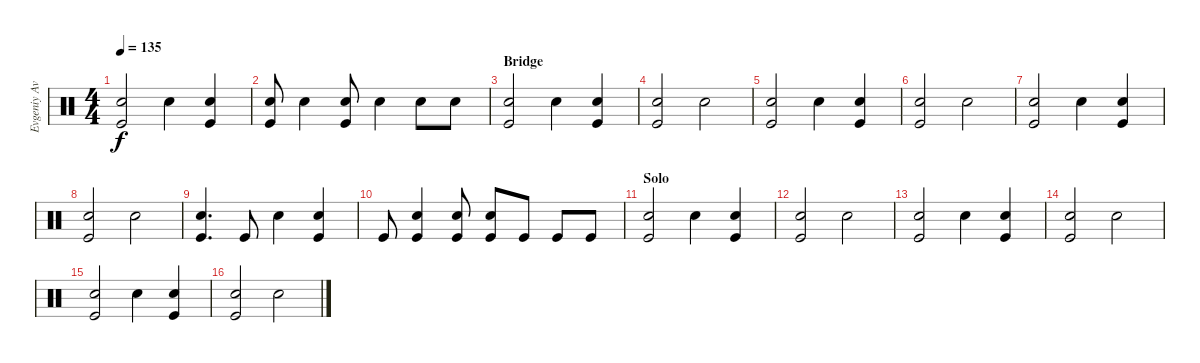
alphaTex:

\track ("Evgeniy Avdotin" "Evgeniy Av") {instrument percussion}
\staff {score}
\articulation defaults
\ts (4 4)
\tempo 135
\clef neutral
\ks c
("Snare (hit) 2" "Kick (hit)").2{dy f} "Snare (hit) 2".4 ("Snare (hit) 2" "Kick (hit)").4 |
("Snare (hit) 2" "Kick (hit)").8 "Snare (hit) 2".4 ("Snare (hit) 2" "Kick (hit)").8 "Snare (hit) 2".4 "Snare (hit) 2".8 "Snare (hit) 2".8 |
\section ("" "Bridge")
("Snare (hit) 2" "Kick (hit)").2 "Snare (hit) 2".4 ("Snare (hit) 2" "Kick (hit)").4 |
("Snare (hit) 2" "Kick (hit)").2 "Snare (hit) 2".2 |
("Snare (hit) 2" "Kick (hit)").2 "Snare (hit) 2".4 ("Snare (hit) 2" "Kick (hit)").4 |
("Snare (hit) 2" "Kick (hit)").2 "Snare (hit) 2".2 |
("Snare (hit) 2" "Kick (hit)").2 "Snare (hit) 2".4 ("Snare (hit) 2" "Kick (hit)").4 |
("Snare (hit) 2" "Kick (hit)").2 "Snare (hit) 2".2 |
("Snare (hit) 2" "Kick (hit)").4{d} "Kick (hit)".8 "Snare (hit) 2".4 ("Snare (hit) 2" "Kick (hit)").4 |
"Kick (hit)".8 ("Snare (hit) 2" "Kick (hit)").4 ("Snare (hit) 2" "Kick (hit)").8 ("Snare (hit) 2" "Kick (hit)").8 "Kick (hit)".8 "Kick (hit)".8 "Kick (hit)".8 |
\section ("" "Solo")
("Snare (hit) 2" "Kick (hit)").2 "Snare (hit) 2".4 ("Snare (hit) 2" "Kick (hit)").4 |
("Snare (hit) 2" "Kick (hit)").2 "Snare (hit) 2".2 |
("Snare (hit) 2" "Kick (hit)").2 "Snare (hit) 2".4 ("Snare (hit) 2" "Kick (hit)").4 |
("Snare (hit) 2" "Kick (hit)").2 "Snare (hit) 2".2 |
("Snare (hit) 2" "Kick (hit)").2 "Snare (hit) 2".4 ("Snare (hit) 2" "Kick (hit)").4 |
("Snare (hit) 2" "Kick (hit)").2 "Snare (hit) 2".2
